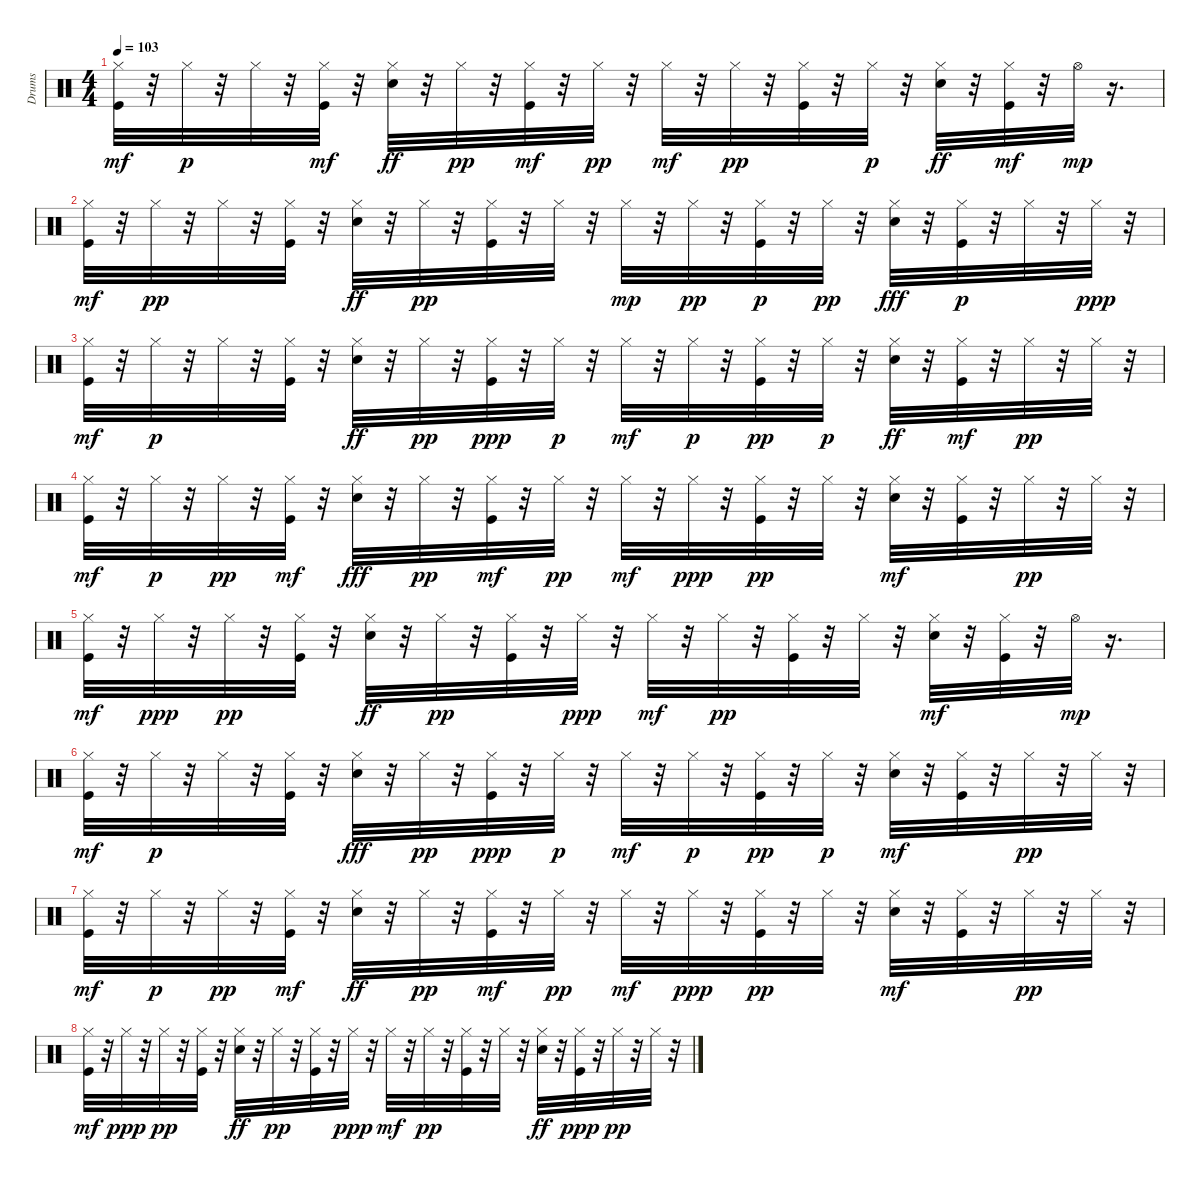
\track ("Drums" "Drums") {instrument percussion}
\staff {score}
\articulation defaults
\ts (4 4)
\tempo 103
\clef neutral
\ks c
("Hi-Hat (closed)" "Kick (hit)").32{dy mf} r.32 "Hi-Hat (closed)".32{dy p} r.32 "Hi-Hat (closed)".32 r.32 ("Hi-Hat (closed)" "Kick (hit)").32{dy mf} r.32 ("Hi-Hat (closed)" "Snare (hit) 2").32{dy ff} r.32 "Hi-Hat (closed)".32{dy pp} r.32 ("Hi-Hat (closed)" "Kick (hit)").32{dy mf} r.32 "Hi-Hat (closed)".32{dy pp} r.32 "Hi-Hat (closed)".32{dy mf} r.32 "Hi-Hat (closed)".32{dy pp} r.32 ("Kick (hit)" "Hi-Hat (closed)").32 r.32 "Hi-Hat (closed)".32{dy p} r.32 ("Hi-Hat (closed)" "Snare (hit) 2").32{dy ff} r.32 ("Hi-Hat (closed)" "Kick (hit)").32{dy mf} r.32 "Hi-Hat (open)".32{dy mp} r.16{d} |
("Hi-Hat (closed)" "Kick (hit)").32{dy mf} r.32 "Hi-Hat (closed)".32{dy pp} r.32 "Hi-Hat (closed)".32 r.32 ("Hi-Hat (closed)" "Kick (hit)").32 r.32 ("Hi-Hat (closed)" "Snare (hit) 2").32{dy ff} r.32 "Hi-Hat (closed)".32{dy pp} r.32 ("Hi-Hat (closed)" "Kick (hit)").32 r.32 "Hi-Hat (closed)".32 r.32 "Hi-Hat (closed)".32{dy mp} r.32 "Hi-Hat (closed)".32{dy pp} r.32 ("Hi-Hat (closed)" "Kick (hit)").32{dy p} r.32 "Hi-Hat (closed)".32{dy pp} r.32 ("Hi-Hat (closed)" "Snare (hit) 2").32{dy fff} r.32 ("Hi-Hat (closed)" "Kick (hit)").32{dy p} r.32 "Hi-Hat (closed)".32 r.32 "Hi-Hat (closed)".32{dy ppp} r.32 |
("Kick (hit)" "Hi-Hat (closed)").32{dy mf} r.32 "Hi-Hat (closed)".32{dy p} r.32 "Hi-Hat (closed)".32 r.32 ("Kick (hit)" "Hi-Hat (closed)").32 r.32 ("Hi-Hat (closed)" "Snare (hit) 2").32{dy ff} r.32 "Hi-Hat (closed)".32{dy pp} r.32 ("Hi-Hat (closed)" "Kick (hit)").32{dy ppp} r.32 "Hi-Hat (closed)".32{dy p} r.32 "Hi-Hat (closed)".32{dy mf} r.32 "Hi-Hat (closed)".32{dy p} r.32 ("Kick (hit)" "Hi-Hat (closed)").32{dy pp} r.32 "Hi-Hat (closed)".32{dy p} r.32 ("Hi-Hat (closed)" "Snare (hit) 2").32{dy ff} r.32 ("Hi-Hat (closed)" "Kick (hit)").32{dy mf} r.32 "Hi-Hat (closed)".32{dy pp} r.32 "Hi-Hat (closed)".32 r.32 |
("Hi-Hat (closed)" "Kick (hit)").32{dy mf} r.32 "Hi-Hat (closed)".32{dy p} r.32 "Hi-Hat (closed)".32{dy pp} r.32 ("Hi-Hat (closed)" "Kick (hit)").32{dy mf} r.32 ("Hi-Hat (closed)" "Snare (hit) 2").32{dy fff} r.32 "Hi-Hat (closed)".32{dy pp} r.32 ("Hi-Hat (closed)" "Kick (hit)").32{dy mf} r.32 "Hi-Hat (closed)".32{dy pp} r.32 "Hi-Hat (closed)".32{dy mf} r.32 "Hi-Hat (closed)".32{dy ppp} r.32 ("Kick (hit)" "Hi-Hat (closed)").32{dy pp} r.32 "Hi-Hat (closed)".32 r.32 ("Snare (hit) 2" "Hi-Hat (closed)").32{dy mf} r.32 ("Hi-Hat (closed)" "Kick (hit)").32 r.32 "Hi-Hat (closed)".32{dy pp} r.32 "Hi-Hat (closed)".32 r.32 |
("Hi-Hat (closed)" "Kick (hit)").32{dy mf} r.32 "Hi-Hat (closed)".32{dy ppp} r.32 "Hi-Hat (closed)".32{dy pp} r.32 ("Kick (hit)" "Hi-Hat (closed)").32 r.32 ("Hi-Hat (closed)" "Snare (hit) 2").32{dy ff} r.32 "Hi-Hat (closed)".32{dy pp} r.32 ("Hi-Hat (closed)" "Kick (hit)").32 r.32 "Hi-Hat (closed)".32{dy ppp} r.32 "Hi-Hat (closed)".32{dy mf} r.32 "Hi-Hat (closed)".32{dy pp} r.32 ("Hi-Hat (closed)" "Kick (hit)").32 r.32 "Hi-Hat (closed)".32 r.32 ("Hi-Hat (closed)" "Snare (hit) 2").32{dy mf} r.32 ("Hi-Hat (closed)" "Kick (hit)").32 r.32 "Hi-Hat (open)".32{dy mp} r.16{d} |
("Hi-Hat (closed)" "Kick (hit)").32{dy mf} r.32 "Hi-Hat (closed)".32{dy p} r.32 "Hi-Hat (closed)".32 r.32 ("Kick (hit)" "Hi-Hat (closed)").32 r.32 ("Hi-Hat (closed)" "Snare (hit) 2").32{dy fff} r.32 "Hi-Hat (closed)".32{dy pp} r.32 ("Hi-Hat (closed)" "Kick (hit)").32{dy ppp} r.32 "Hi-Hat (closed)".32{dy p} r.32 "Hi-Hat (closed)".32{dy mf} r.32 "Hi-Hat (closed)".32{dy p} r.32 ("Kick (hit)" "Hi-Hat (closed)").32{dy pp} r.32 "Hi-Hat (closed)".32{dy p} r.32 ("Snare (hit) 2" "Hi-Hat (closed)").32{dy mf} r.32 ("Hi-Hat (closed)" "Kick (hit)").32 r.32 "Hi-Hat (closed)".32{dy pp} r.32 "Hi-Hat (closed)".32 r.32 |
("Hi-Hat (closed)" "Kick (hit)").32{dy mf} r.32 "Hi-Hat (closed)".32{dy p} r.32 "Hi-Hat (closed)".32{dy pp} r.32 ("Hi-Hat (closed)" "Kick (hit)").32{dy mf} r.32 ("Hi-Hat (closed)" "Snare (hit) 2").32{dy ff} r.32 "Hi-Hat (closed)".32{dy pp} r.32 ("Hi-Hat (closed)" "Kick (hit)").32{dy mf} r.32 "Hi-Hat (closed)".32{dy pp} r.32 "Hi-Hat (closed)".32{dy mf} r.32 "Hi-Hat (closed)".32{dy ppp} r.32 ("Kick (hit)" "Hi-Hat (closed)").32{dy pp} r.32 "Hi-Hat (closed)".32 r.32 ("Hi-Hat (closed)" "Snare (hit) 2").32{dy mf} r.32 ("Hi-Hat (closed)" "Kick (hit)").32 r.32 "Hi-Hat (closed)".32{dy pp} r.32 "Hi-Hat (closed)".32 r.32 |
("Hi-Hat (closed)" "Kick (hit)").32{dy mf} r.32 "Hi-Hat (closed)".32{dy ppp} r.32 "Hi-Hat (closed)".32{dy pp} r.32 ("Hi-Hat (closed)" "Kick (hit)").32 r.32 ("Hi-Hat (closed)" "Snare (hit) 2").32{dy ff} r.32 "Hi-Hat (closed)".32{dy pp} r.32 ("Hi-Hat (closed)" "Kick (hit)").32 r.32 "Hi-Hat (closed)".32{dy ppp} r.32 "Hi-Hat (closed)".32{dy mf} r.32 "Hi-Hat (closed)".32{dy pp} r.32 ("Hi-Hat (closed)" "Kick (hit)").32 r.32 "Hi-Hat (closed)".32 r.32 ("Hi-Hat (closed)" "Snare (hit) 2").32{dy ff} r.32 ("Hi-Hat (closed)" "Kick (hit)").32{dy ppp} r.32 "Hi-Hat (closed)".32{dy pp} r.32 "Hi-Hat (closed)".32 r.32
